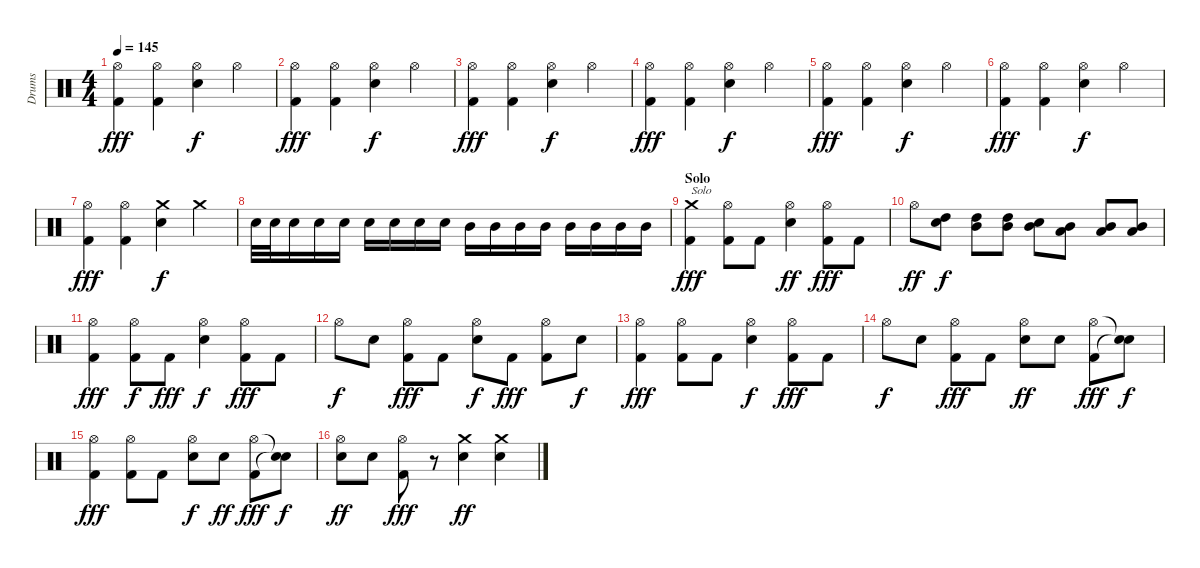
\track ("Drums" "Drums") {instrument percussion}
\staff {score}
\articulation defaults
\ts (4 4)
\tempo 145
\clef neutral
\ks c
("Hi-Hat (open)" "Kick (hit) 2").4{dy fff} ("Hi-Hat (open)" "Kick (hit) 2").4 ("Hi-Hat (open)" "Snare (hit) 2").4{dy f} "Hi-Hat (open)".4 |
("Hi-Hat (open)" "Kick (hit) 2").4{dy fff} ("Hi-Hat (open)" "Kick (hit) 2").4 ("Hi-Hat (open)" "Snare (hit) 2").4{dy f} "Hi-Hat (open)".4 |
("Hi-Hat (open)" "Kick (hit) 2").4{dy fff} ("Hi-Hat (open)" "Kick (hit) 2").4 ("Hi-Hat (open)" "Snare (hit) 2").4{dy f} "Hi-Hat (open)".4 |
("Hi-Hat (open)" "Kick (hit) 2").4{dy fff} ("Hi-Hat (open)" "Kick (hit) 2").4 ("Hi-Hat (open)" "Snare (hit) 2").4{dy f} "Hi-Hat (open)".4 |
("Hi-Hat (open)" "Kick (hit) 2").4{dy fff} ("Hi-Hat (open)" "Kick (hit) 2").4 ("Hi-Hat (open)" "Snare (hit) 2").4{dy f} "Hi-Hat (open)".4 |
("Hi-Hat (open)" "Kick (hit) 2").4{dy fff} ("Hi-Hat (open)" "Kick (hit) 2").4 ("Hi-Hat (open)" "Snare (hit) 2").4{dy f} "Hi-Hat (open)".4 |
("Hi-Hat (open)" "Kick (hit) 2").4{dy fff} ("Hi-Hat (open)" "Kick (hit) 2").4 ("Crash medium (hit)" "Snare (hit) 2").4{dy f} "Crash medium (hit)".4 |
"Snare (hit) 2".32 "Snare (hit) 2".32 "Snare (hit) 2".16 "Snare (hit) 2".16 "Snare (hit) 2".16 "Snare (hit) 2".16 "Snare (hit) 2".16 "Snare (hit) 2".16 "Snare (hit) 2".16 "Mid Tom (hit)".16 "Mid Tom (hit)".16 "Mid Tom (hit)".16 "Mid Tom (hit)".16 "Mid Tom (hit)".16 "Mid Tom (hit)".16 "Mid Tom (hit)".16 "Mid Tom (hit)".16 |
\section ("" "Solo")
("Crash medium (hit)" "Kick (hit) 2").4{txt "Solo" dy fff} ("Hi-Hat (open)" "Kick (hit) 2").8 "Kick (hit) 2".8 ("Hi-Hat (open)" "Snare (hit) 2").4{dy ff} ("Hi-Hat (open)" "Kick (hit) 2").8{dy fff} "Kick (hit) 2".8 |
"Hi-Hat (open)".8{dy ff} ("Snare (hit) 2" "High Tom (hit)").8{dy f} ("High Tom (hit)" "Mid Tom (hit)").8 ("High Tom (hit)" "Mid Tom (hit)").8 ("Snare (hit) 2" "Mid Tom (hit)").8 ("Mid Tom (hit)" "Low Tom (hit)").8 ("Mid Tom (hit)" "Low Tom (hit)").8 ("Mid Tom (hit)" "Low Tom (hit)").8 |
("Hi-Hat (open)" "Kick (hit) 2").4{dy fff} ("Hi-Hat (open)" "Kick (hit) 2").8{dy f} "Kick (hit) 2".8{dy fff} ("Hi-Hat (open)" "Snare (hit) 2").4{dy f} ("Hi-Hat (open)" "Kick (hit) 2").8{dy fff} "Kick (hit) 2".8 |
"Hi-Hat (open)".8{dy f} "Snare (hit) 2".8 ("Hi-Hat (open)" "Kick (hit) 2").8{dy fff} "Kick (hit) 2".8 ("Hi-Hat (open)" "Snare (hit) 2").8{dy f} "Kick (hit) 2".8{dy fff} ("Hi-Hat (open)" "Kick (hit) 2").8 "Snare (hit) 2".8{dy f} |
("Hi-Hat (open)" "Kick (hit) 2").4{dy fff} ("Hi-Hat (open)" "Kick (hit) 2").8 "Kick (hit) 2".8 ("Hi-Hat (open)" "Snare (hit) 2").4{dy f} ("Hi-Hat (open)" "Kick (hit) 2").8{dy fff} "Kick (hit) 2".8 |
"Hi-Hat (open)".8{dy f} "Snare (hit) 2".8 ("Hi-Hat (open)" "Kick (hit) 2").8{dy fff} "Kick (hit) 2".8 ("Hi-Hat (open)" "Snare (hit) 2").8{dy ff} "Snare (hit) 2".8 ("Hi-Hat (open)" "Kick (hit) 2").8{dy fff} ("Snare (hit)"{t} "Snare (hit)"{t}).8{dy f} |
("Hi-Hat (open)" "Kick (hit) 2").4{dy fff} ("Hi-Hat (open)" "Kick (hit) 2").8 "Kick (hit) 2".8 ("Hi-Hat (open)" "Snare (hit) 2").8{dy f} "Snare (hit) 2".8{dy ff} ("Hi-Hat (open)" "Kick (hit) 2").8{dy fff} ("Snare (hit)"{t} "Snare (hit)"{t}).8{dy f} |
("Hi-Hat (open)" "Snare (hit) 2").8{dy ff} "Snare (hit) 2".8 ("Hi-Hat (open)" "Kick (hit) 2").8{dy fff} r.8 ("Crash medium (hit)" "Snare (hit) 2").4{dy ff} ("Crash medium (hit)" "Snare (hit) 2").4
